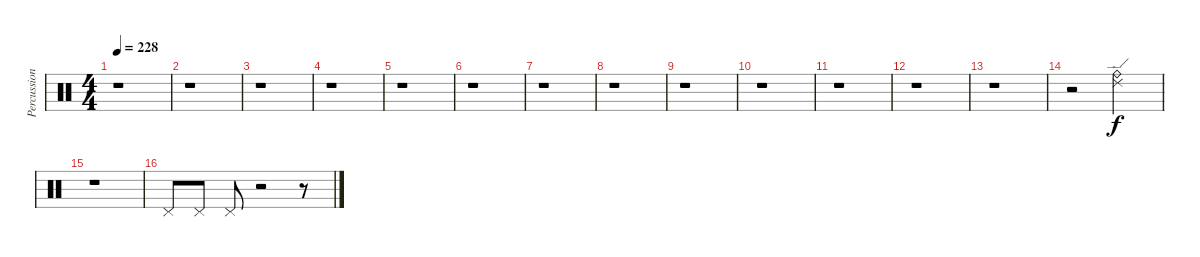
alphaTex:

\track ("Percussions" "Percussion") {instrument percussion}
\staff {score}
\articulation defaults
\ts (4 4)
\tempo 228
\clef neutral
\ks c
r.1{dy f} |
r.1 |
r.1 |
r.1 |
r.1 |
r.1 |
r.1 |
r.1 |
r.1 |
r.1 |
r.1 |
r.1 |
r.1 |
r.2 ("Ride (edge) 2" "Ride (bell)").2 |
r.1 |
"Pedal Hi-Hat (hit)".8 "Pedal Hi-Hat (hit)".8 "Pedal Hi-Hat (hit)".8 r.2 r.8
